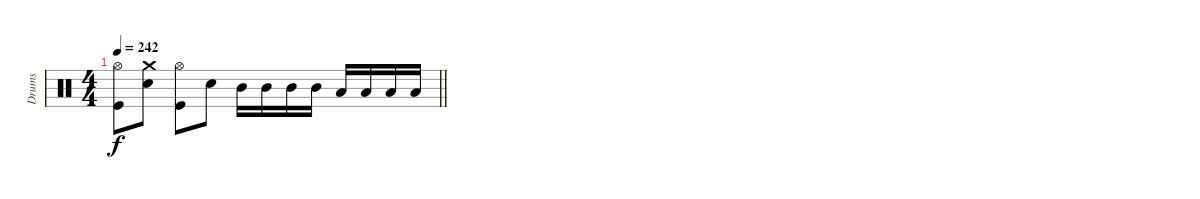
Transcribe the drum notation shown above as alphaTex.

\track ("Drums" "Drums") {instrument percussion}
\staff
\articulation defaults
\ts (4 4)
\tempo 242
\clef neutral
\barLineRight lightlight
\ks c
("Hi-Hat (open)" "Kick (hit)").8{dy f} ("Crash medium (hit)" "Electric Snare (hit)").8 ("Hi-Hat (open)" "Kick (hit)").8 "Electric Snare (hit)".8 "Mid Tom (hit)".16 "Mid Tom (hit)".16 "Mid Tom (hit)".16 "Mid Tom (hit)".16 "Low Tom (hit)".16 "Low Tom (hit)".16 "Low Tom (hit)".16 "Low Tom (hit)".16
